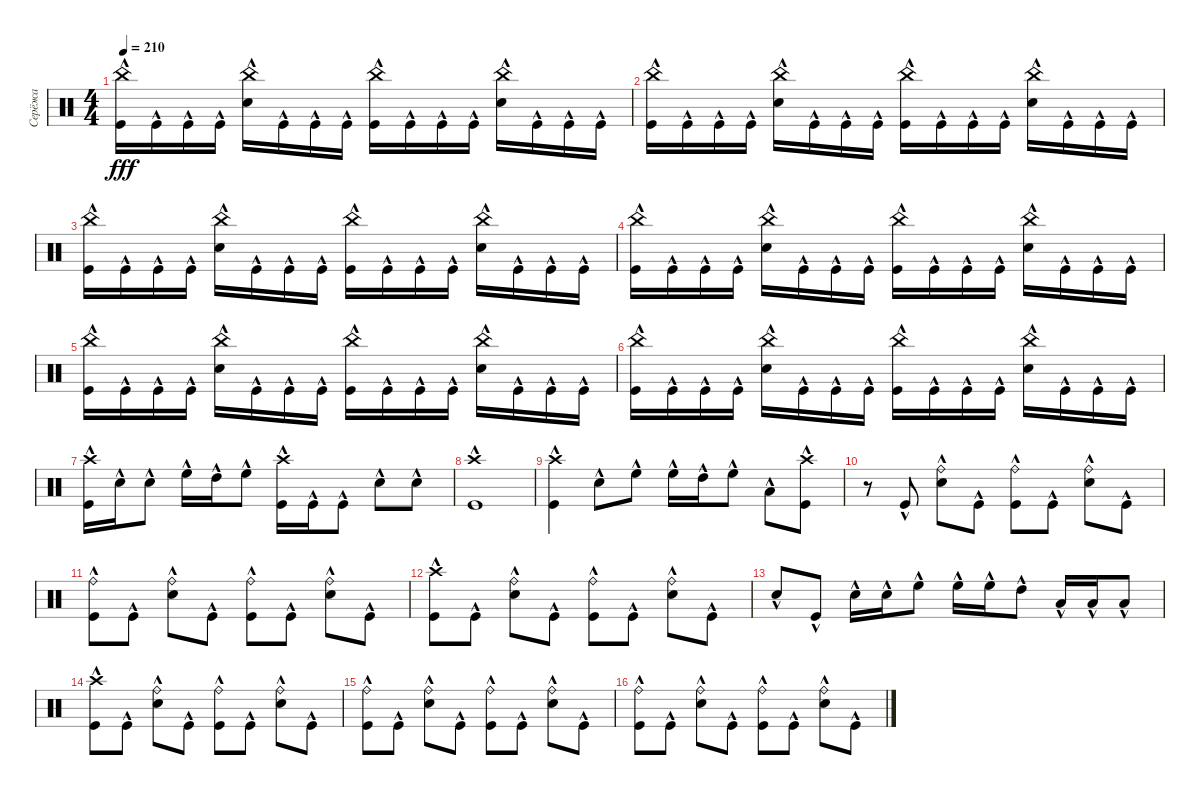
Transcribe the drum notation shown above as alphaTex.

\track ("Серёжа" "Серёжа") {instrument percussion}
\staff {score}
\articulation defaults
\ts (4 4)
\tempo 210
\clef neutral
\ks c
("China (hit)" "Kick (hit)"{hac}).16{dy fff} "Kick (hit)"{hac}.16 "Kick (hit)"{hac}.16 "Kick (hit)"{hac}.16 ("China (hit)" "Snare (hit) 2"{hac}).16 "Kick (hit)"{hac}.16 "Kick (hit)"{hac}.16 "Kick (hit)"{hac}.16 ("China (hit)" "Kick (hit)"{hac}).16 "Kick (hit)"{hac}.16 "Kick (hit)"{hac}.16 "Kick (hit)"{hac}.16 ("China (hit)" "Snare (hit) 2"{hac}).16 "Kick (hit)"{hac}.16 "Kick (hit)"{hac}.16 "Kick (hit)"{hac}.16 |
("China (hit)" "Kick (hit)"{hac}).16 "Kick (hit)"{hac}.16 "Kick (hit)"{hac}.16 "Kick (hit)"{hac}.16 ("China (hit)" "Snare (hit) 2"{hac}).16 "Kick (hit)"{hac}.16 "Kick (hit)"{hac}.16 "Kick (hit)"{hac}.16 ("China (hit)" "Kick (hit)"{hac}).16 "Kick (hit)"{hac}.16 "Kick (hit)"{hac}.16 "Kick (hit)"{hac}.16 ("China (hit)" "Snare (hit) 2"{hac}).16 "Kick (hit)"{hac}.16 "Kick (hit)"{hac}.16 "Kick (hit)"{hac}.16 |
("China (hit)" "Kick (hit)"{hac}).16 "Kick (hit)"{hac}.16 "Kick (hit)"{hac}.16 "Kick (hit)"{hac}.16 ("China (hit)" "Snare (hit) 2"{hac}).16 "Kick (hit)"{hac}.16 "Kick (hit)"{hac}.16 "Kick (hit)"{hac}.16 ("China (hit)" "Kick (hit)"{hac}).16 "Kick (hit)"{hac}.16 "Kick (hit)"{hac}.16 "Kick (hit)"{hac}.16 ("China (hit)" "Snare (hit) 2"{hac}).16 "Kick (hit)"{hac}.16 "Kick (hit)"{hac}.16 "Kick (hit)"{hac}.16 |
("China (hit)" "Kick (hit)"{hac}).16 "Kick (hit)"{hac}.16 "Kick (hit)"{hac}.16 "Kick (hit)"{hac}.16 ("China (hit)" "Snare (hit) 2"{hac}).16 "Kick (hit)"{hac}.16 "Kick (hit)"{hac}.16 "Kick (hit)"{hac}.16 ("China (hit)" "Kick (hit)"{hac}).16 "Kick (hit)"{hac}.16 "Kick (hit)"{hac}.16 "Kick (hit)"{hac}.16 ("China (hit)" "Snare (hit) 2"{hac}).16 "Kick (hit)"{hac}.16 "Kick (hit)"{hac}.16 "Kick (hit)"{hac}.16 |
("China (hit)" "Kick (hit)"{hac}).16 "Kick (hit)"{hac}.16 "Kick (hit)"{hac}.16 "Kick (hit)"{hac}.16 ("China (hit)" "Snare (hit) 2"{hac}).16 "Kick (hit)"{hac}.16 "Kick (hit)"{hac}.16 "Kick (hit)"{hac}.16 ("China (hit)" "Kick (hit)"{hac}).16 "Kick (hit)"{hac}.16 "Kick (hit)"{hac}.16 "Kick (hit)"{hac}.16 ("China (hit)" "Snare (hit) 2"{hac}).16 "Kick (hit)"{hac}.16 "Kick (hit)"{hac}.16 "Kick (hit)"{hac}.16 |
("China (hit)" "Kick (hit)"{hac}).16 "Kick (hit)"{hac}.16 "Kick (hit)"{hac}.16 "Kick (hit)"{hac}.16 ("China (hit)" "Snare (hit) 2"{hac}).16 "Kick (hit)"{hac}.16 "Kick (hit)"{hac}.16 "Kick (hit)"{hac}.16 ("China (hit)" "Kick (hit)"{hac}).16 "Kick (hit)"{hac}.16 "Kick (hit)"{hac}.16 "Kick (hit)"{hac}.16 ("China (hit)" "Snare (hit) 2"{hac}).16 "Kick (hit)"{hac}.16 "Kick (hit)"{hac}.16 "Kick (hit)"{hac}.16 |
("Crash high (hit)"{hac} "Kick (hit)"{hac}).16 "Snare (hit) 2"{hac}.16 "Snare (hit) 2"{hac}.8 "High Floor Tom (hit)"{hac}.16 "High Tom (hit)"{hac}.16 "High Floor Tom (hit)"{hac}.8 ("Crash high (hit)"{hac} "Kick (hit)"{hac}).16 "Kick (hit)"{hac}.16 "Kick (hit)"{hac}.8 "Snare (hit) 2"{hac}.8 "Snare (hit) 2"{hac}.8 |
("Crash high (hit)"{hac} "Kick (hit)"{hac}).1 |
("Crash high (hit)"{hac} "Kick (hit)"{hac}).4 "Snare (hit) 2"{hac}.8 "High Floor Tom (hit)"{hac}.8 "High Floor Tom (hit)"{hac}.16 "High Tom (hit)"{hac}.16 "High Floor Tom (hit)"{hac}.8 "Low Tom (hit)"{hac}.8 ("Crash high (hit)" "Kick (hit)"{hac}).8 |
r.8 "Kick (hit)"{hac}.8 ("Ride (bell)" "Snare (hit) 2"{hac}).8 "Kick (hit)"{hac}.8 ("Ride (bell)" "Kick (hit)"{hac}).8 "Kick (hit)"{hac}.8 ("Ride (bell)" "Snare (hit) 2"{hac}).8 "Kick (hit)"{hac}.8 |
("Ride (bell)" "Kick (hit)"{hac}).8 "Kick (hit)"{hac}.8 ("Ride (bell)" "Snare (hit) 2"{hac}).8 "Kick (hit)"{hac}.8 ("Ride (bell)" "Kick (hit)"{hac}).8 "Kick (hit)"{hac}.8 ("Ride (bell)" "Snare (hit) 2"{hac}).8 "Kick (hit)"{hac}.8 |
("Crash high (hit)"{hac} "Kick (hit)"{hac}).8 "Kick (hit)"{hac}.8 ("Ride (bell)" "Snare (hit) 2"{hac}).8 "Kick (hit)"{hac}.8 ("Ride (bell)" "Kick (hit)"{hac}).8 "Kick (hit)"{hac}.8 ("Ride (bell)" "Snare (hit) 2"{hac}).8 "Kick (hit)"{hac}.8 |
"Snare (hit) 2"{hac}.8 "Kick (hit)"{hac}.8 "Snare (hit) 2"{hac}.16 "Snare (hit) 2"{hac}.16 "High Floor Tom (hit)"{hac}.8 "High Floor Tom (hit)"{hac}.16 "High Floor Tom (hit)"{hac}.16 "High Tom (hit)"{hac}.8 "Low Tom (hit)"{hac}.16 "Low Tom (hit)"{hac}.16 "Low Floor Tom (hit)"{hac}.8 |
("Crash high (hit)"{hac} "Kick (hit)"{hac}).8 "Kick (hit)"{hac}.8 ("Ride (bell)" "Snare (hit) 2"{hac}).8 "Kick (hit)"{hac}.8 ("Ride (bell)" "Kick (hit)"{hac}).8 "Kick (hit)"{hac}.8 ("Ride (bell)" "Snare (hit) 2"{hac}).8 "Kick (hit)"{hac}.8 |
("Ride (bell)" "Kick (hit)"{hac}).8 "Kick (hit)"{hac}.8 ("Ride (bell)" "Snare (hit) 2"{hac}).8 "Kick (hit)"{hac}.8 ("Ride (bell)" "Kick (hit)"{hac}).8 "Kick (hit)"{hac}.8 ("Ride (bell)" "Snare (hit) 2"{hac}).8 "Kick (hit)"{hac}.8 |
("Ride (bell)" "Kick (hit)"{hac}).8 "Kick (hit)"{hac}.8 ("Ride (bell)" "Snare (hit) 2"{hac}).8 "Kick (hit)"{hac}.8 ("Ride (bell)" "Kick (hit)"{hac}).8 "Kick (hit)"{hac}.8 ("Ride (bell)" "Snare (hit) 2"{hac}).8 "Kick (hit)"{hac}.8
